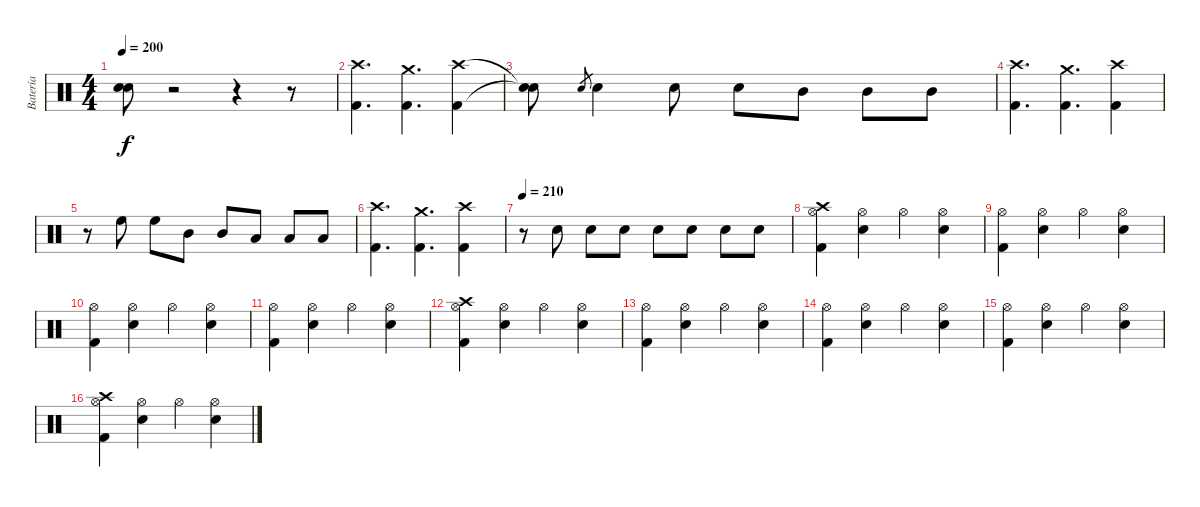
\track ("Batería" "Batería") {instrument percussion}
\staff {score}
\articulation defaults
\ts (4 4)
\tempo 200
\clef neutral
\ks c
("Snare (hit)"{t} "Snare (hit)"{t}).8{dy f} r.2 r.4 r.8 |
("Kick (hit) 2" "Crash high (hit)").4{d} ("Kick (hit) 2" "Crash medium (hit)").4{d} ("Kick (hit) 2" "Crash high (hit)").4 |
("Snare (hit)"{t} "Snare (hit)"{t}).8 "Electric Snare (hit)".8{gr} "Electric Snare (hit)".4 "Electric Snare (hit)".8 "Electric Snare (hit)".8 "Mid Tom (hit)".8 "Mid Tom (hit)".8 "Mid Tom (hit)".8 |
("Kick (hit) 2" "Crash high (hit)").4{d} ("Kick (hit) 2" "Crash medium (hit)").4{d} ("Kick (hit) 2" "Crash high (hit)").4 |
r.8 "High Floor Tom (hit)".8 "High Floor Tom (hit)".8 "Mid Tom (hit)".8 "Mid Tom (hit)".8 "Low Tom (hit)".8 "Low Tom (hit)".8 "Low Tom (hit)".8 |
("Kick (hit) 2" "Crash high (hit)").4{d} ("Kick (hit) 2" "Crash medium (hit)").4{d} ("Kick (hit) 2" "Crash high (hit)").4 |
\tempo 210
r.8 "Electric Snare (hit)".8 "Electric Snare (hit)".8 "Electric Snare (hit)".8 "Electric Snare (hit)".8 "Electric Snare (hit)".8 "Electric Snare (hit)".8 "Electric Snare (hit)".8 |
("Hi-Hat (open)" "Kick (hit) 2" "Crash high (hit)").4 ("Hi-Hat (open)" "Electric Snare (hit)").4 "Hi-Hat (open)".4 ("Hi-Hat (open)" "Electric Snare (hit)").4 |
("Hi-Hat (open)" "Kick (hit) 2").4 ("Hi-Hat (open)" "Electric Snare (hit)").4 "Hi-Hat (open)".4 ("Hi-Hat (open)" "Electric Snare (hit)").4 |
("Hi-Hat (open)" "Kick (hit) 2").4 ("Hi-Hat (open)" "Electric Snare (hit)").4 "Hi-Hat (open)".4 ("Hi-Hat (open)" "Electric Snare (hit)").4 |
("Hi-Hat (open)" "Kick (hit) 2").4 ("Hi-Hat (open)" "Electric Snare (hit)").4 "Hi-Hat (open)".4 ("Hi-Hat (open)" "Electric Snare (hit)").4 |
("Hi-Hat (open)" "Kick (hit) 2" "Crash high (hit)").4 ("Hi-Hat (open)" "Electric Snare (hit)").4 "Hi-Hat (open)".4 ("Hi-Hat (open)" "Electric Snare (hit)").4 |
("Hi-Hat (open)" "Kick (hit) 2").4 ("Hi-Hat (open)" "Electric Snare (hit)").4 "Hi-Hat (open)".4 ("Hi-Hat (open)" "Electric Snare (hit)").4 |
("Hi-Hat (open)" "Kick (hit) 2").4 ("Hi-Hat (open)" "Electric Snare (hit)").4 "Hi-Hat (open)".4 ("Hi-Hat (open)" "Electric Snare (hit)").4 |
("Hi-Hat (open)" "Kick (hit) 2").4 ("Hi-Hat (open)" "Electric Snare (hit)").4 "Hi-Hat (open)".4 ("Hi-Hat (open)" "Electric Snare (hit)").4 |
("Hi-Hat (open)" "Kick (hit) 2" "Crash high (hit)").4 ("Hi-Hat (open)" "Electric Snare (hit)").4 "Hi-Hat (open)".4 ("Hi-Hat (open)" "Electric Snare (hit)").4
